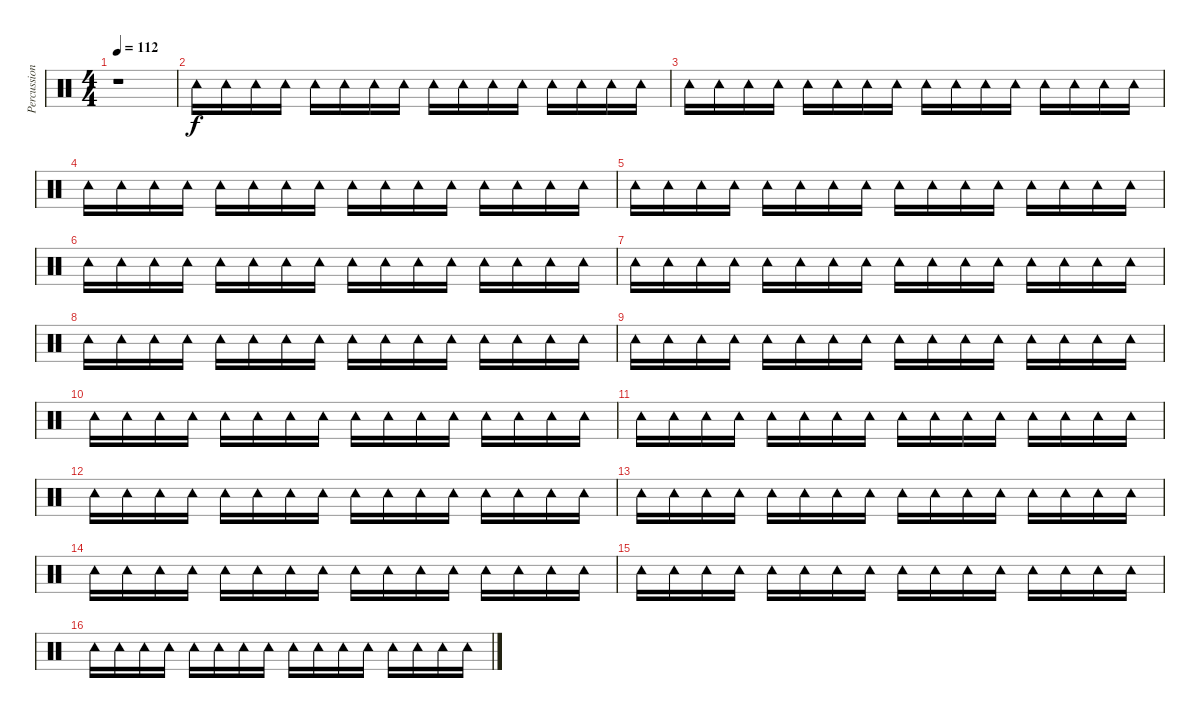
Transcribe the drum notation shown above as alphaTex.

\track ("Percussions" "Percussion") {instrument percussion}
\staff {score}
\articulation defaults
\ts (4 4)
\tempo 112
\clef neutral
\ks c
r.1{dy f} |
"Tambourine (hit)".16 "Tambourine (hit)".16 "Tambourine (hit)".16 "Tambourine (hit)".16 "Tambourine (hit)".16 "Tambourine (hit)".16 "Tambourine (hit)".16 "Tambourine (hit)".16 "Tambourine (hit)".16 "Tambourine (hit)".16 "Tambourine (hit)".16 "Tambourine (hit)".16 "Tambourine (hit)".16 "Tambourine (hit)".16 "Tambourine (hit)".16 "Tambourine (hit)".16 |
"Tambourine (hit)".16 "Tambourine (hit)".16 "Tambourine (hit)".16 "Tambourine (hit)".16 "Tambourine (hit)".16 "Tambourine (hit)".16 "Tambourine (hit)".16 "Tambourine (hit)".16 "Tambourine (hit)".16 "Tambourine (hit)".16 "Tambourine (hit)".16 "Tambourine (hit)".16 "Tambourine (hit)".16 "Tambourine (hit)".16 "Tambourine (hit)".16 "Tambourine (hit)".16 |
"Tambourine (hit)".16 "Tambourine (hit)".16 "Tambourine (hit)".16 "Tambourine (hit)".16 "Tambourine (hit)".16 "Tambourine (hit)".16 "Tambourine (hit)".16 "Tambourine (hit)".16 "Tambourine (hit)".16 "Tambourine (hit)".16 "Tambourine (hit)".16 "Tambourine (hit)".16 "Tambourine (hit)".16 "Tambourine (hit)".16 "Tambourine (hit)".16 "Tambourine (hit)".16 |
"Tambourine (hit)".16 "Tambourine (hit)".16 "Tambourine (hit)".16 "Tambourine (hit)".16 "Tambourine (hit)".16 "Tambourine (hit)".16 "Tambourine (hit)".16 "Tambourine (hit)".16 "Tambourine (hit)".16 "Tambourine (hit)".16 "Tambourine (hit)".16 "Tambourine (hit)".16 "Tambourine (hit)".16 "Tambourine (hit)".16 "Tambourine (hit)".16 "Tambourine (hit)".16 |
"Tambourine (hit)".16 "Tambourine (hit)".16 "Tambourine (hit)".16 "Tambourine (hit)".16 "Tambourine (hit)".16 "Tambourine (hit)".16 "Tambourine (hit)".16 "Tambourine (hit)".16 "Tambourine (hit)".16 "Tambourine (hit)".16 "Tambourine (hit)".16 "Tambourine (hit)".16 "Tambourine (hit)".16 "Tambourine (hit)".16 "Tambourine (hit)".16 "Tambourine (hit)".16 |
"Tambourine (hit)".16 "Tambourine (hit)".16 "Tambourine (hit)".16 "Tambourine (hit)".16 "Tambourine (hit)".16 "Tambourine (hit)".16 "Tambourine (hit)".16 "Tambourine (hit)".16 "Tambourine (hit)".16 "Tambourine (hit)".16 "Tambourine (hit)".16 "Tambourine (hit)".16 "Tambourine (hit)".16 "Tambourine (hit)".16 "Tambourine (hit)".16 "Tambourine (hit)".16 |
"Tambourine (hit)".16 "Tambourine (hit)".16 "Tambourine (hit)".16 "Tambourine (hit)".16 "Tambourine (hit)".16 "Tambourine (hit)".16 "Tambourine (hit)".16 "Tambourine (hit)".16 "Tambourine (hit)".16 "Tambourine (hit)".16 "Tambourine (hit)".16 "Tambourine (hit)".16 "Tambourine (hit)".16 "Tambourine (hit)".16 "Tambourine (hit)".16 "Tambourine (hit)".16 |
"Tambourine (hit)".16 "Tambourine (hit)".16 "Tambourine (hit)".16 "Tambourine (hit)".16 "Tambourine (hit)".16 "Tambourine (hit)".16 "Tambourine (hit)".16 "Tambourine (hit)".16 "Tambourine (hit)".16 "Tambourine (hit)".16 "Tambourine (hit)".16 "Tambourine (hit)".16 "Tambourine (hit)".16 "Tambourine (hit)".16 "Tambourine (hit)".16 "Tambourine (hit)".16 |
"Tambourine (hit)".16 "Tambourine (hit)".16 "Tambourine (hit)".16 "Tambourine (hit)".16 "Tambourine (hit)".16 "Tambourine (hit)".16 "Tambourine (hit)".16 "Tambourine (hit)".16 "Tambourine (hit)".16 "Tambourine (hit)".16 "Tambourine (hit)".16 "Tambourine (hit)".16 "Tambourine (hit)".16 "Tambourine (hit)".16 "Tambourine (hit)".16 "Tambourine (hit)".16 |
"Tambourine (hit)".16 "Tambourine (hit)".16 "Tambourine (hit)".16 "Tambourine (hit)".16 "Tambourine (hit)".16 "Tambourine (hit)".16 "Tambourine (hit)".16 "Tambourine (hit)".16 "Tambourine (hit)".16 "Tambourine (hit)".16 "Tambourine (hit)".16 "Tambourine (hit)".16 "Tambourine (hit)".16 "Tambourine (hit)".16 "Tambourine (hit)".16 "Tambourine (hit)".16 |
"Tambourine (hit)".16 "Tambourine (hit)".16 "Tambourine (hit)".16 "Tambourine (hit)".16 "Tambourine (hit)".16 "Tambourine (hit)".16 "Tambourine (hit)".16 "Tambourine (hit)".16 "Tambourine (hit)".16 "Tambourine (hit)".16 "Tambourine (hit)".16 "Tambourine (hit)".16 "Tambourine (hit)".16 "Tambourine (hit)".16 "Tambourine (hit)".16 "Tambourine (hit)".16 |
"Tambourine (hit)".16 "Tambourine (hit)".16 "Tambourine (hit)".16 "Tambourine (hit)".16 "Tambourine (hit)".16 "Tambourine (hit)".16 "Tambourine (hit)".16 "Tambourine (hit)".16 "Tambourine (hit)".16 "Tambourine (hit)".16 "Tambourine (hit)".16 "Tambourine (hit)".16 "Tambourine (hit)".16 "Tambourine (hit)".16 "Tambourine (hit)".16 "Tambourine (hit)".16 |
"Tambourine (hit)".16 "Tambourine (hit)".16 "Tambourine (hit)".16 "Tambourine (hit)".16 "Tambourine (hit)".16 "Tambourine (hit)".16 "Tambourine (hit)".16 "Tambourine (hit)".16 "Tambourine (hit)".16 "Tambourine (hit)".16 "Tambourine (hit)".16 "Tambourine (hit)".16 "Tambourine (hit)".16 "Tambourine (hit)".16 "Tambourine (hit)".16 "Tambourine (hit)".16 |
"Tambourine (hit)".16 "Tambourine (hit)".16 "Tambourine (hit)".16 "Tambourine (hit)".16 "Tambourine (hit)".16 "Tambourine (hit)".16 "Tambourine (hit)".16 "Tambourine (hit)".16 "Tambourine (hit)".16 "Tambourine (hit)".16 "Tambourine (hit)".16 "Tambourine (hit)".16 "Tambourine (hit)".16 "Tambourine (hit)".16 "Tambourine (hit)".16 "Tambourine (hit)".16 |
"Tambourine (hit)".16 "Tambourine (hit)".16 "Tambourine (hit)".16 "Tambourine (hit)".16 "Tambourine (hit)".16 "Tambourine (hit)".16 "Tambourine (hit)".16 "Tambourine (hit)".16 "Tambourine (hit)".16 "Tambourine (hit)".16 "Tambourine (hit)".16 "Tambourine (hit)".16 "Tambourine (hit)".16 "Tambourine (hit)".16 "Tambourine (hit)".16 "Tambourine (hit)".16
